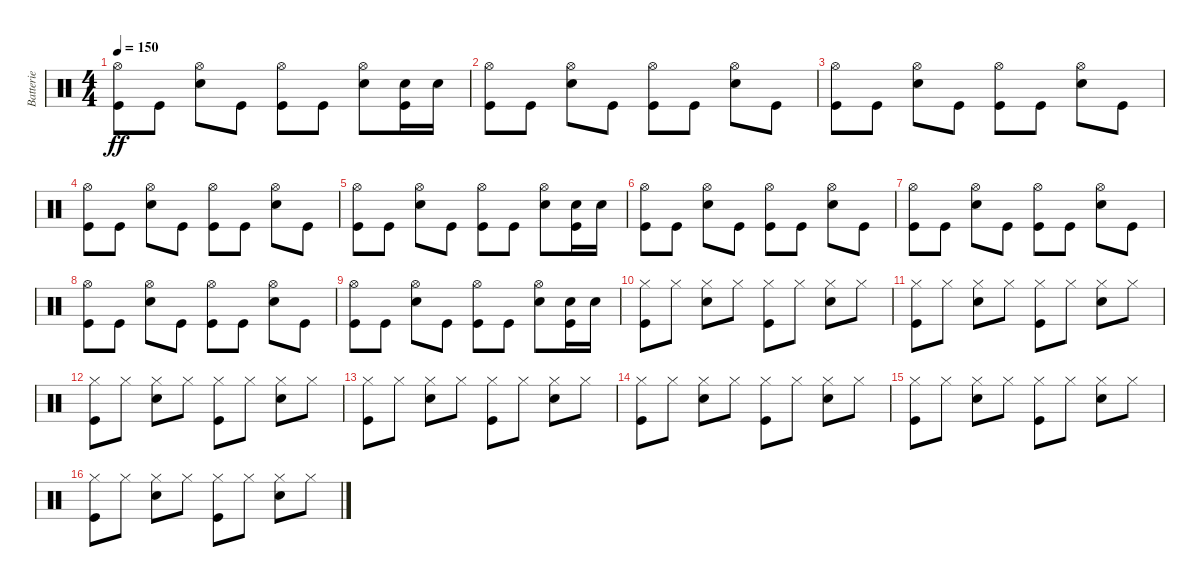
\track ("Batterie" "Batterie") {instrument percussion}
\staff {score}
\articulation defaults
\ts (4 4)
\tempo 150
\clef neutral
\ks c
("Kick (hit)" "Hi-Hat (open)").8{dy ff} "Kick (hit)".8 ("Electric Snare (hit)" "Hi-Hat (open)").8 "Kick (hit)".8 ("Kick (hit)" "Hi-Hat (open)").8 "Kick (hit)".8 ("Electric Snare (hit)" "Hi-Hat (open)").8 ("Kick (hit)" "Electric Snare (hit)").16 "Electric Snare (hit)".16 |
("Kick (hit)" "Hi-Hat (open)").8 "Kick (hit)".8 ("Electric Snare (hit)" "Hi-Hat (open)").8 "Kick (hit)".8 ("Kick (hit)" "Hi-Hat (open)").8 "Kick (hit)".8 ("Electric Snare (hit)" "Hi-Hat (open)").8 "Kick (hit)".8 |
("Kick (hit)" "Hi-Hat (open)").8 "Kick (hit)".8 ("Electric Snare (hit)" "Hi-Hat (open)").8 "Kick (hit)".8 ("Kick (hit)" "Hi-Hat (open)").8 "Kick (hit)".8 ("Electric Snare (hit)" "Hi-Hat (open)").8 "Kick (hit)".8 |
("Kick (hit)" "Hi-Hat (open)").8 "Kick (hit)".8 ("Electric Snare (hit)" "Hi-Hat (open)").8 "Kick (hit)".8 ("Kick (hit)" "Hi-Hat (open)").8 "Kick (hit)".8 ("Electric Snare (hit)" "Hi-Hat (open)").8 "Kick (hit)".8 |
("Kick (hit)" "Hi-Hat (open)").8 "Kick (hit)".8 ("Electric Snare (hit)" "Hi-Hat (open)").8 "Kick (hit)".8 ("Kick (hit)" "Hi-Hat (open)").8 "Kick (hit)".8 ("Electric Snare (hit)" "Hi-Hat (open)").8 ("Kick (hit)" "Electric Snare (hit)").16 "Electric Snare (hit)".16 |
("Kick (hit)" "Hi-Hat (open)").8 "Kick (hit)".8 ("Electric Snare (hit)" "Hi-Hat (open)").8 "Kick (hit)".8 ("Kick (hit)" "Hi-Hat (open)").8 "Kick (hit)".8 ("Electric Snare (hit)" "Hi-Hat (open)").8 "Kick (hit)".8 |
("Kick (hit)" "Hi-Hat (open)").8 "Kick (hit)".8 ("Electric Snare (hit)" "Hi-Hat (open)").8 "Kick (hit)".8 ("Kick (hit)" "Hi-Hat (open)").8 "Kick (hit)".8 ("Electric Snare (hit)" "Hi-Hat (open)").8 "Kick (hit)".8 |
("Kick (hit)" "Hi-Hat (open)").8 "Kick (hit)".8 ("Electric Snare (hit)" "Hi-Hat (open)").8 "Kick (hit)".8 ("Kick (hit)" "Hi-Hat (open)").8 "Kick (hit)".8 ("Electric Snare (hit)" "Hi-Hat (open)").8 "Kick (hit)".8 |
("Kick (hit)" "Hi-Hat (open)").8 "Kick (hit)".8 ("Electric Snare (hit)" "Hi-Hat (open)").8 "Kick (hit)".8 ("Kick (hit)" "Hi-Hat (open)").8 "Kick (hit)".8 ("Electric Snare (hit)" "Hi-Hat (open)").8 ("Kick (hit)" "Electric Snare (hit)").16 "Electric Snare (hit)".16 |
("Kick (hit)" "Hi-Hat (closed)").8 "Hi-Hat (closed)".8 ("Electric Snare (hit)" "Hi-Hat (closed)").8 "Hi-Hat (closed)".8 ("Kick (hit)" "Hi-Hat (closed)").8 "Hi-Hat (closed)".8 ("Electric Snare (hit)" "Hi-Hat (closed)").8 "Hi-Hat (closed)".8 |
("Kick (hit)" "Hi-Hat (closed)").8 "Hi-Hat (closed)".8 ("Electric Snare (hit)" "Hi-Hat (closed)").8 "Hi-Hat (closed)".8 ("Kick (hit)" "Hi-Hat (closed)").8 "Hi-Hat (closed)".8 ("Electric Snare (hit)" "Hi-Hat (closed)").8 "Hi-Hat (closed)".8 |
("Kick (hit)" "Hi-Hat (closed)").8 "Hi-Hat (closed)".8 ("Electric Snare (hit)" "Hi-Hat (closed)").8 "Hi-Hat (closed)".8 ("Kick (hit)" "Hi-Hat (closed)").8 "Hi-Hat (closed)".8 ("Electric Snare (hit)" "Hi-Hat (closed)").8 "Hi-Hat (closed)".8 |
("Kick (hit)" "Hi-Hat (closed)").8 "Hi-Hat (closed)".8 ("Electric Snare (hit)" "Hi-Hat (closed)").8 "Hi-Hat (closed)".8 ("Kick (hit)" "Hi-Hat (closed)").8 "Hi-Hat (closed)".8 ("Electric Snare (hit)" "Hi-Hat (closed)").8 "Hi-Hat (closed)".8 |
("Kick (hit)" "Hi-Hat (closed)").8 "Hi-Hat (closed)".8 ("Electric Snare (hit)" "Hi-Hat (closed)").8 "Hi-Hat (closed)".8 ("Kick (hit)" "Hi-Hat (closed)").8 "Hi-Hat (closed)".8 ("Electric Snare (hit)" "Hi-Hat (closed)").8 "Hi-Hat (closed)".8 |
("Kick (hit)" "Hi-Hat (closed)").8 "Hi-Hat (closed)".8 ("Electric Snare (hit)" "Hi-Hat (closed)").8 "Hi-Hat (closed)".8 ("Kick (hit)" "Hi-Hat (closed)").8 "Hi-Hat (closed)".8 ("Electric Snare (hit)" "Hi-Hat (closed)").8 "Hi-Hat (closed)".8 |
("Kick (hit)" "Hi-Hat (closed)").8 "Hi-Hat (closed)".8 ("Electric Snare (hit)" "Hi-Hat (closed)").8 "Hi-Hat (closed)".8 ("Kick (hit)" "Hi-Hat (closed)").8 "Hi-Hat (closed)".8 ("Electric Snare (hit)" "Hi-Hat (closed)").8 "Hi-Hat (closed)".8
